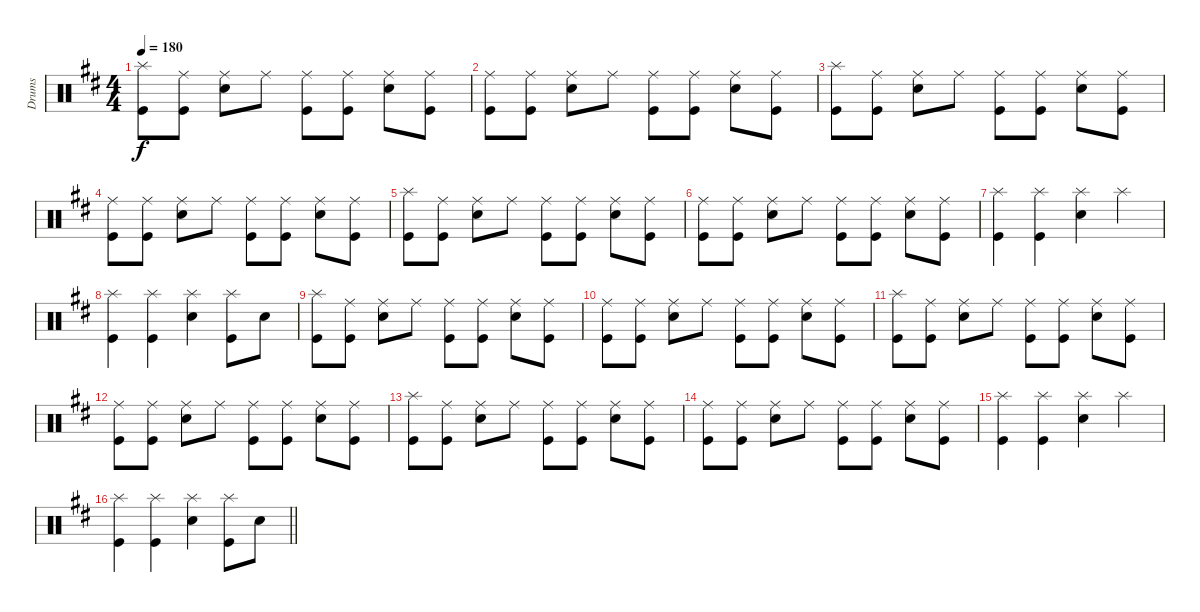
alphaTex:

\track ("Drums" "Drums") {instrument percussion}
\staff {score}
\articulation defaults
\ts (4 4)
\tempo 180
\clef neutral
\ks d
("Kick (hit)" "Splash (hit)").8{dy f} ("Kick (hit)" "Ride (middle)").8 ("Snare (hit) 2" "Ride (middle)").8 "Ride (middle)".8 ("Kick (hit)" "Ride (middle)").8 ("Kick (hit)" "Ride (middle)").8 ("Snare (hit) 2" "Ride (middle)").8 ("Kick (hit)" "Ride (middle)").8 |
("Kick (hit)" "Ride (middle)").8 ("Kick (hit)" "Ride (middle)").8 ("Snare (hit) 2" "Ride (middle)").8 "Ride (middle)".8 ("Kick (hit)" "Ride (middle)").8 ("Kick (hit)" "Ride (middle)").8 ("Snare (hit) 2" "Ride (middle)").8 ("Kick (hit)" "Ride (middle)").8 |
("Kick (hit)" "Splash (hit)").8 ("Kick (hit)" "Ride (middle)").8 ("Snare (hit) 2" "Ride (middle)").8 "Ride (middle)".8 ("Kick (hit)" "Ride (middle)").8 ("Kick (hit)" "Ride (middle)").8 ("Snare (hit) 2" "Ride (middle)").8 ("Kick (hit)" "Ride (middle)").8 |
("Kick (hit)" "Ride (middle)").8 ("Kick (hit)" "Ride (middle)").8 ("Snare (hit) 2" "Ride (middle)").8 "Ride (middle)".8 ("Kick (hit)" "Ride (middle)").8 ("Kick (hit)" "Ride (middle)").8 ("Snare (hit) 2" "Ride (middle)").8 ("Kick (hit)" "Ride (middle)").8 |
("Kick (hit)" "Splash (hit)").8 ("Kick (hit)" "Ride (middle)").8 ("Snare (hit) 2" "Ride (middle)").8 "Ride (middle)".8 ("Kick (hit)" "Ride (middle)").8 ("Kick (hit)" "Ride (middle)").8 ("Snare (hit) 2" "Ride (middle)").8 ("Kick (hit)" "Ride (middle)").8 |
("Kick (hit)" "Ride (middle)").8 ("Kick (hit)" "Ride (middle)").8 ("Snare (hit) 2" "Ride (middle)").8 "Ride (middle)".8 ("Kick (hit)" "Ride (middle)").8 ("Kick (hit)" "Ride (middle)").8 ("Snare (hit) 2" "Ride (middle)").8 ("Kick (hit)" "Ride (middle)").8 |
("Kick (hit)" "Splash (hit)").4 ("Kick (hit)" "Splash (hit)").4 ("Snare (hit) 2" "Splash (hit)").4 "Splash (hit)".4 |
("Kick (hit)" "Splash (hit)").4 ("Kick (hit)" "Splash (hit)").4 ("Snare (hit) 2" "Splash (hit)").4 ("Kick (hit)" "Splash (hit)").8 "Snare (hit) 2".8 |
("Kick (hit)" "Splash (hit)").8 ("Kick (hit)" "Ride (middle)").8 ("Snare (hit) 2" "Ride (middle)").8 "Ride (middle)".8 ("Kick (hit)" "Ride (middle)").8 ("Kick (hit)" "Ride (middle)").8 ("Snare (hit) 2" "Ride (middle)").8 ("Kick (hit)" "Ride (middle)").8 |
("Kick (hit)" "Ride (middle)").8 ("Kick (hit)" "Ride (middle)").8 ("Snare (hit) 2" "Ride (middle)").8 "Ride (middle)".8 ("Kick (hit)" "Ride (middle)").8 ("Kick (hit)" "Ride (middle)").8 ("Snare (hit) 2" "Ride (middle)").8 ("Kick (hit)" "Ride (middle)").8 |
("Kick (hit)" "Splash (hit)").8 ("Kick (hit)" "Ride (middle)").8 ("Snare (hit) 2" "Ride (middle)").8 "Ride (middle)".8 ("Kick (hit)" "Ride (middle)").8 ("Kick (hit)" "Ride (middle)").8 ("Snare (hit) 2" "Ride (middle)").8 ("Kick (hit)" "Ride (middle)").8 |
("Kick (hit)" "Ride (middle)").8 ("Kick (hit)" "Ride (middle)").8 ("Snare (hit) 2" "Ride (middle)").8 "Ride (middle)".8 ("Kick (hit)" "Ride (middle)").8 ("Kick (hit)" "Ride (middle)").8 ("Snare (hit) 2" "Ride (middle)").8 ("Kick (hit)" "Ride (middle)").8 |
("Kick (hit)" "Splash (hit)").8 ("Kick (hit)" "Ride (middle)").8 ("Snare (hit) 2" "Ride (middle)").8 "Ride (middle)".8 ("Kick (hit)" "Ride (middle)").8 ("Kick (hit)" "Ride (middle)").8 ("Snare (hit) 2" "Ride (middle)").8 ("Kick (hit)" "Ride (middle)").8 |
("Kick (hit)" "Ride (middle)").8 ("Kick (hit)" "Ride (middle)").8 ("Snare (hit) 2" "Ride (middle)").8 "Ride (middle)".8 ("Kick (hit)" "Ride (middle)").8 ("Kick (hit)" "Ride (middle)").8 ("Snare (hit) 2" "Ride (middle)").8 ("Kick (hit)" "Ride (middle)").8 |
("Kick (hit)" "Splash (hit)").4 ("Kick (hit)" "Splash (hit)").4 ("Snare (hit) 2" "Splash (hit)").4 "Splash (hit)".4 |
\barLineRight lightlight
("Kick (hit)" "Splash (hit)").4 ("Kick (hit)" "Splash (hit)").4 ("Snare (hit) 2" "Splash (hit)").4 ("Kick (hit)" "Splash (hit)").8 "Snare (hit) 2".8
